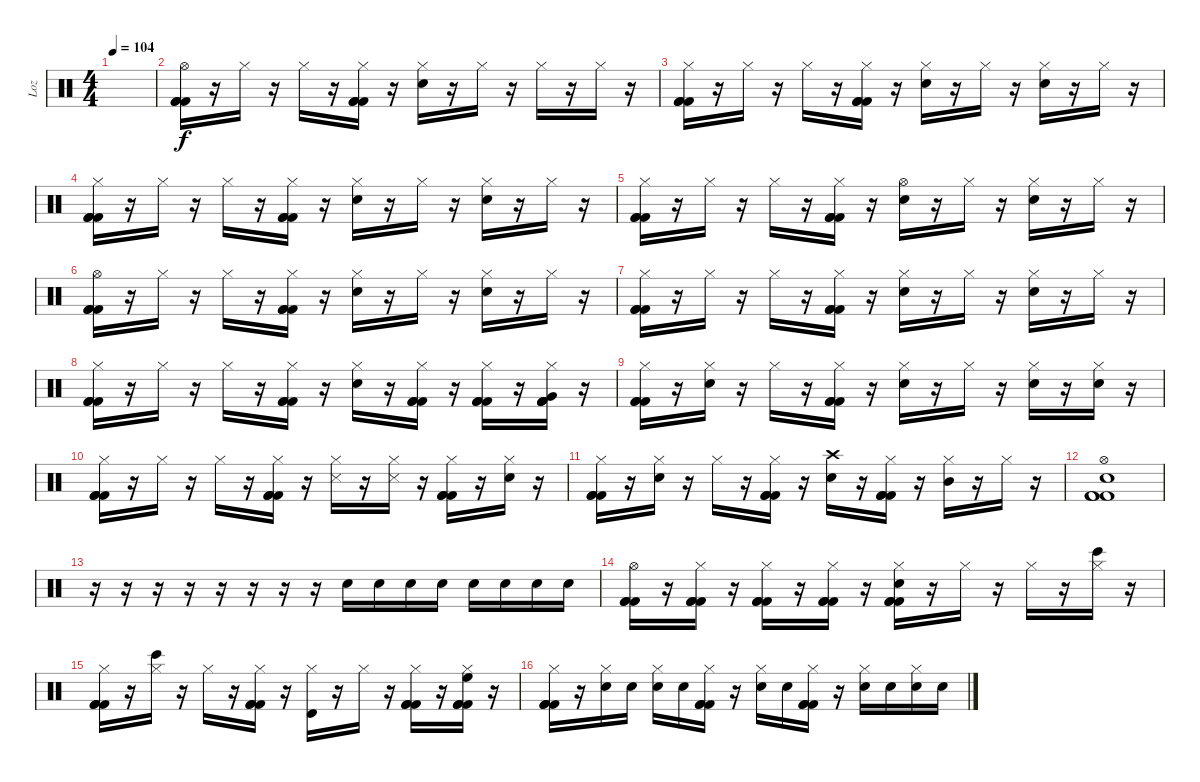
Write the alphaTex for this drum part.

\track ("Loz" "Loz") {instrument percussion}
\staff {score}
\articulation defaults
\ts (4 4)
\tempo 104
\clef neutral
\ks c
|
("Hi-Hat (open)" "Kick (hit) 2" "Kick (hit) 2" "Kick (hit) 2").16 r.16 "Hi-Hat (closed)".16 r.16 "Hi-Hat (closed)".16 r.16 ("Hi-Hat (closed)" "Kick (hit) 2" "Kick (hit) 2" "Kick (hit) 2").16 r.16 ("Hi-Hat (closed)" "Electric Snare (hit)").16 r.16 "Hi-Hat (closed)".16 r.16 "Hi-Hat (closed)".16 r.16 "Hi-Hat (closed)".16 r.16 |
("Hi-Hat (closed)" "Kick (hit) 2" "Kick (hit) 2" "Kick (hit) 2").16 r.16 "Hi-Hat (closed)".16 r.16 "Hi-Hat (closed)".16 r.16 ("Hi-Hat (closed)" "Kick (hit) 2" "Kick (hit) 2" "Kick (hit) 2").16 r.16 ("Hi-Hat (closed)" "Electric Snare (hit)").16 r.16 "Hi-Hat (closed)".16 r.16 ("Hi-Hat (closed)" "Electric Snare (hit)").16 r.16 "Hi-Hat (closed)".16 r.16 |
("Hi-Hat (closed)" "Kick (hit) 2" "Kick (hit) 2" "Kick (hit) 2").16 r.16 "Hi-Hat (closed)".16 r.16 "Hi-Hat (closed)".16 r.16 ("Hi-Hat (closed)" "Kick (hit) 2" "Kick (hit) 2" "Kick (hit) 2").16 r.16 ("Hi-Hat (closed)" "Electric Snare (hit)").16 r.16 "Hi-Hat (closed)".16 r.16 ("Hi-Hat (closed)" "Electric Snare (hit)").16 r.16 "Hi-Hat (closed)".16 r.16 |
("Hi-Hat (closed)" "Kick (hit) 2" "Kick (hit) 2" "Kick (hit) 2").16 r.16 "Hi-Hat (closed)".16 r.16 "Hi-Hat (closed)".16 r.16 ("Hi-Hat (closed)" "Kick (hit) 2" "Kick (hit) 2" "Kick (hit) 2").16 r.16 ("Hi-Hat (open)" "Electric Snare (hit)").16 r.16 "Hi-Hat (closed)".16 r.16 ("Hi-Hat (closed)" "Electric Snare (hit)").16 r.16 "Hi-Hat (closed)".16 r.16 |
("Hi-Hat (open)" "Kick (hit) 2" "Kick (hit) 2" "Kick (hit) 2").16 r.16 "Hi-Hat (closed)".16 r.16 "Hi-Hat (closed)".16 r.16 ("Hi-Hat (closed)" "Kick (hit) 2" "Kick (hit) 2" "Kick (hit) 2").16 r.16 ("Hi-Hat (closed)" "Electric Snare (hit)").16 r.16 "Hi-Hat (closed)".16 r.16 ("Hi-Hat (closed)" "Electric Snare (hit)").16 r.16 "Hi-Hat (closed)".16 r.16 |
("Hi-Hat (closed)" "Kick (hit) 2" "Kick (hit) 2" "Kick (hit) 2").16 r.16 "Hi-Hat (closed)".16 r.16 "Hi-Hat (closed)".16 r.16 ("Hi-Hat (closed)" "Kick (hit) 2" "Kick (hit) 2" "Kick (hit) 2").16 r.16 ("Hi-Hat (closed)" "Electric Snare (hit)").16 r.16 "Hi-Hat (closed)".16 r.16 ("Hi-Hat (closed)" "Electric Snare (hit)").16 r.16 "Hi-Hat (closed)".16 r.16 |
("Hi-Hat (closed)" "Kick (hit) 2" "Kick (hit) 2" "Kick (hit) 2").16 r.16 "Hi-Hat (closed)".16 r.16 "Hi-Hat (closed)".16 r.16 ("Hi-Hat (closed)" "Kick (hit) 2" "Kick (hit) 2" "Kick (hit) 2").16 r.16 ("Hi-Hat (closed)" "Electric Snare (hit)").16 r.16 ("Hi-Hat (closed)" "Kick (hit) 2" "Kick (hit) 2" "Kick (hit) 2").16 r.16 ("Hi-Hat (closed)" "Kick (hit) 2" "Kick (hit) 2" "Kick (hit) 2").16 r.16 ("Hi-Hat (closed)" "Very Low Tom (hit)" "Kick (hit) 2" "Kick (hit) 2" "Kick (hit) 2").16 r.16 |
("Hi-Hat (closed)" "Kick (hit) 2" "Kick (hit) 2" "Kick (hit) 2").16 r.16 ("Hi-Hat (closed)" "Electric Snare (hit)").16 r.16 "Hi-Hat (closed)".16 r.16 ("Hi-Hat (closed)" "Kick (hit) 2" "Kick (hit) 2" "Kick (hit) 2").16 r.16 ("Hi-Hat (closed)" "Electric Snare (hit)").16 r.16 "Hi-Hat (closed)".16 r.16 ("Hi-Hat (closed)" "Electric Snare (hit)").16 r.16 ("Hi-Hat (closed)" "Electric Snare (hit)").16 r.16 |
("Hi-Hat (closed)" "Kick (hit) 2" "Kick (hit) 2" "Kick (hit) 2").16 r.16 "Hi-Hat (closed)".16 r.16 "Hi-Hat (closed)".16 r.16 ("Hi-Hat (closed)" "Kick (hit) 2" "Kick (hit) 2" "Kick (hit) 2").16 r.16 ("Hi-Hat (closed)" "Snare (side stick) 3").16 r.16 ("Hi-Hat (closed)" "Snare (side stick) 3").16 r.16 ("Hi-Hat (closed)" "Kick (hit) 2" "Kick (hit) 2" "Kick (hit) 2").16 r.16 ("Hi-Hat (closed)" "Electric Snare (hit)").16 r.16 |
("Hi-Hat (closed)" "Kick (hit) 2" "Kick (hit) 2" "Kick (hit) 2").16 r.16 ("Hi-Hat (closed)" "Electric Snare (hit)").16 r.16 "Hi-Hat (closed)".16 r.16 ("Hi-Hat (closed)" "Kick (hit) 2" "Kick (hit) 2" "Kick (hit) 2").16 r.16 ("Crash high (hit)" "Electric Snare (hit)").16 r.16 ("Hi-Hat (closed)" "Kick (hit) 2" "Kick (hit) 2" "Kick (hit) 2").16 r.16 ("Hi-Hat (closed)" "Mid Tom (hit)").16 r.16 "Hi-Hat (closed)".16 r.16 |
("Hi-Hat (open)" "Electric Snare (hit)" "Kick (hit) 2" "Kick (hit) 2" "Kick (hit) 2").1 |
r.16 r.16 r.16 r.16 r.16 r.16 r.16 r.16 "Electric Snare (hit)".16 "Electric Snare (hit)".16 "Electric Snare (hit)".16 "Electric Snare (hit)".16 "Electric Snare (hit)".16 "Electric Snare (hit)".16 "Electric Snare (hit)".16 "Electric Snare (hit)".16 |
("Hi-Hat (open)" "Kick (hit) 2" "Kick (hit) 2" "Kick (hit) 2").16 r.16 ("Hi-Hat (closed)" "Kick (hit) 2" "Kick (hit) 2" "Kick (hit) 2").16 r.16 ("Hi-Hat (closed)" "Kick (hit) 2" "Kick (hit) 2" "Kick (hit) 2").16 r.16 ("Hi-Hat (closed)" "Kick (hit) 2" "Kick (hit) 2" "Kick (hit) 2").16 r.16 ("Hi-Hat (closed)" "Electric Snare (hit)" "Kick (hit) 2" "Kick (hit) 2" "Kick (hit) 2").16 r.16 "Hi-Hat (closed)".16 r.16 "Hi-Hat (closed)".16 r.16 ("Hi-Hat (closed)" "Bongo High (hit)").16 r.16 |
("Hi-Hat (closed)" "Kick (hit) 2" "Kick (hit) 2" "Kick (hit) 2").16 r.16 ("Hi-Hat (closed)" "Bongo High (hit)").16 r.16 "Hi-Hat (closed)".16 r.16 ("Hi-Hat (closed)" "Kick (hit) 2" "Kick (hit) 2" "Kick (hit) 2").16 r.16 ("Hi-Hat (closed)" "Timbale high (hit)").16 r.16 "Hi-Hat (closed)".16 r.16 ("Hi-Hat (closed)" "Kick (hit) 2" "Kick (hit) 2" "Kick (hit) 2").16 r.16 ("Hi-Hat (closed)" "High Floor Tom (hit)" "Kick (hit) 2" "Kick (hit) 2" "Kick (hit) 2").16 r.16 |
("Hi-Hat (closed)" "Kick (hit) 2" "Kick (hit) 2" "Kick (hit) 2").16 r.16 ("Hi-Hat (closed)" "Electric Snare (hit)").16 "Electric Snare (hit)".16 ("Hi-Hat (closed)" "Electric Snare (hit)").16 "Electric Snare (hit)".16 ("Hi-Hat (closed)" "Kick (hit) 2" "Kick (hit) 2" "Kick (hit) 2").16 r.16 ("Hi-Hat (closed)" "Electric Snare (hit)").16 "Electric Snare (hit)".16 ("Hi-Hat (closed)" "Kick (hit) 2" "Kick (hit) 2" "Kick (hit) 2").16 r.16 ("Hi-Hat (closed)" "Electric Snare (hit)").16 "Electric Snare (hit)".16 ("Hi-Hat (closed)" "Electric Snare (hit)").16 "Electric Snare (hit)".16
